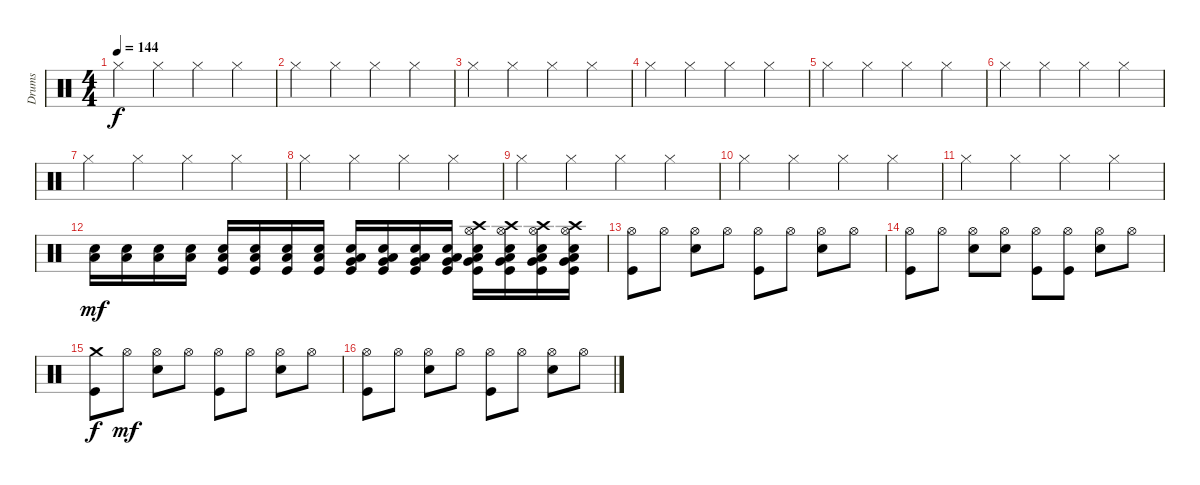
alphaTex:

\track ("Drums" "Drums") {instrument percussion}
\staff {score}
\articulation defaults
\ts (4 4)
\tempo 144
\clef neutral
\ks c "Hi-Hat (closed)".4{dy f} "Hi-Hat (closed)".4 "Hi-Hat (closed)".4 "Hi-Hat (closed)".4
|
"Hi-Hat (closed)".4 "Hi-Hat (closed)".4 "Hi-Hat (closed)".4 "Hi-Hat (closed)".4 |
"Hi-Hat (closed)".4 "Hi-Hat (closed)".4 "Hi-Hat (closed)".4 "Hi-Hat (closed)".4 |
"Hi-Hat (closed)".4 "Hi-Hat (closed)".4 "Hi-Hat (closed)".4 "Hi-Hat (closed)".4 |
"Hi-Hat (closed)".4 "Hi-Hat (closed)".4 "Hi-Hat (closed)".4 "Hi-Hat (closed)".4 |
"Hi-Hat (closed)".4 "Hi-Hat (closed)".4 "Hi-Hat (closed)".4 "Hi-Hat (closed)".4 |
"Hi-Hat (closed)".4 "Hi-Hat (closed)".4 "Hi-Hat (closed)".4 "Hi-Hat (closed)".4 |
"Hi-Hat (closed)".4 "Hi-Hat (closed)".4 "Hi-Hat (closed)".4 "Hi-Hat (closed)".4 |
"Hi-Hat (closed)".4 "Hi-Hat (closed)".4 "Hi-Hat (closed)".4 "Hi-Hat (closed)".4 |
"Hi-Hat (closed)".4 "Hi-Hat (closed)".4 "Hi-Hat (closed)".4 "Hi-Hat (closed)".4 |
"Hi-Hat (closed)".4 "Hi-Hat (closed)".4 "Hi-Hat (closed)".4 "Hi-Hat (closed)".4 |
("Low Tom (hit)" "Snare (hit) 2").16{dy mf} ("Low Tom (hit)" "Snare (hit) 2").16 ("Low Tom (hit)" "Snare (hit) 2").16 ("Low Tom (hit)" "Snare (hit) 2").16 ("Low Tom (hit)" "Snare (hit) 2" "Kick (hit)").16 ("Low Tom (hit)" "Snare (hit) 2" "Kick (hit)").16 ("Low Tom (hit)" "Snare (hit) 2" "Kick (hit)").16 ("Low Tom (hit)" "Snare (hit) 2" "Kick (hit)").16 ("Low Tom (hit)" "Snare (hit) 2" "Kick (hit)" "Very Low Tom (hit)").16 ("Low Tom (hit)" "Snare (hit) 2" "Kick (hit)" "Very Low Tom (hit)").16 ("Low Tom (hit)" "Snare (hit) 2" "Kick (hit)" "Very Low Tom (hit)").16 ("Low Tom (hit)" "Snare (hit) 2" "Kick (hit)" "Very Low Tom (hit)").16 ("Low Tom (hit)" "Snare (hit) 2" "Kick (hit)" "Very Low Tom (hit)" "Hi-Hat (open)" "Crash high (hit)").16 ("Low Tom (hit)" "Snare (hit) 2" "Kick (hit)" "Very Low Tom (hit)" "Hi-Hat (open)" "Crash high (hit)").16 ("Low Tom (hit)" "Snare (hit) 2" "Kick (hit)" "Very Low Tom (hit)" "Hi-Hat (open)" "Crash high (hit)").16 ("Low Tom (hit)" "Snare (hit) 2" "Kick (hit)" "Very Low Tom (hit)" "Hi-Hat (open)" "Crash high (hit)").16 |
("Hi-Hat (open)" "Kick (hit)").8 "Hi-Hat (open)".8 ("Hi-Hat (open)" "Snare (hit) 2").8 "Hi-Hat (open)".8 ("Hi-Hat (open)" "Kick (hit)").8 "Hi-Hat (open)".8 ("Hi-Hat (open)" "Snare (hit) 2").8 "Hi-Hat (open)".8 |
("Hi-Hat (open)" "Kick (hit)").8 "Hi-Hat (open)".8 ("Hi-Hat (open)" "Snare (hit) 2").8 ("Hi-Hat (open)" "Snare (hit) 2").8 ("Hi-Hat (open)" "Kick (hit)").8 ("Hi-Hat (open)" "Kick (hit)").8 ("Hi-Hat (open)" "Snare (hit) 2").8 "Hi-Hat (open)".8 |
("Crash medium (hit)" "Kick (hit)").8{dy f} "Hi-Hat (open)".8{dy mf} ("Hi-Hat (open)" "Snare (hit) 2").8 "Hi-Hat (open)".8 ("Hi-Hat (open)" "Kick (hit)").8 "Hi-Hat (open)".8 ("Hi-Hat (open)" "Snare (hit) 2").8 "Hi-Hat (open)".8 |
("Hi-Hat (open)" "Kick (hit)").8 "Hi-Hat (open)".8 ("Hi-Hat (open)" "Snare (hit) 2").8 "Hi-Hat (open)".8 ("Hi-Hat (open)" "Kick (hit)").8 "Hi-Hat (open)".8 ("Hi-Hat (open)" "Snare (hit) 2").8 "Hi-Hat (open)".8
